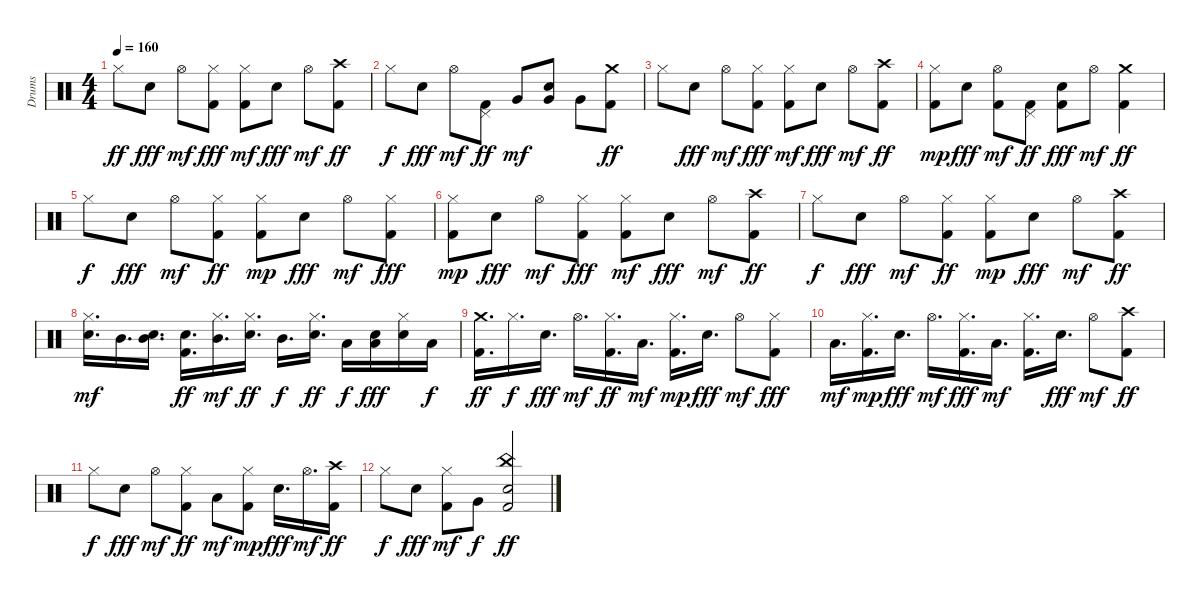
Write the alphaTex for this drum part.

\track ("Drums" "Drums") {instrument percussion}
\staff {score}
\articulation defaults
\ts (4 4)
\tempo 160
\clef neutral
\ks c "Hi-Hat (closed)".8{dy ff} "Electric Snare (hit)".8{dy fff} "Hi-Hat (open)".8{dy mf}
("Kick (hit) 2" "Hi-Hat (closed)").8{dy fff} ("Kick (hit) 2" "Hi-Hat (closed)").8{dy mf} "Electric Snare (hit)".8{dy fff} "Hi-Hat (open)".8{dy mf} ("Kick (hit) 2" "Crash high (hit)").8{dy ff} |
"Hi-Hat (closed)".8{dy f} "Electric Snare (hit)".8{dy fff} "Hi-Hat (open)".8{dy mf} ("Kick (hit) 2" "Pedal Hi-Hat (hit)").8{dy ff} "Very Low Tom (hit)".8{dy mf} ("Electric Snare (hit)" "Very Low Tom (hit)").8 "Very Low Tom (hit)".8 ("Kick (hit) 2" "Crash medium (hit)").8{dy ff} |
"Hi-Hat (closed)".8 "Electric Snare (hit)".8{dy fff} "Hi-Hat (open)".8{dy mf} ("Kick (hit) 2" "Hi-Hat (closed)").8{dy fff} ("Kick (hit) 2" "Hi-Hat (closed)").8{dy mf} "Electric Snare (hit)".8{dy fff} "Hi-Hat (open)".8{dy mf} ("Kick (hit) 2" "Crash high (hit)").8{dy ff} |
("Kick (hit) 2" "Hi-Hat (closed)").8{dy mp} "Electric Snare (hit)".8{dy fff} ("Kick (hit) 2" "Hi-Hat (open)").8{dy mf} ("Kick (hit) 2" "Pedal Hi-Hat (hit)").8{dy ff} ("Kick (hit) 2" "Electric Snare (hit)").8{dy fff} "Hi-Hat (open)".8{dy mf} ("Kick (hit) 2" "Crash medium (hit)").4{dy ff} |
"Hi-Hat (closed)".8{dy f} "Electric Snare (hit)".8{dy fff} "Hi-Hat (open)".8{dy mf} ("Kick (hit) 2" "Hi-Hat (closed)").8{dy ff} ("Kick (hit) 2" "Hi-Hat (closed)").8{dy mp} "Electric Snare (hit)".8{dy fff} "Hi-Hat (open)".8{dy mf} ("Kick (hit) 2" "Hi-Hat (closed)").8{dy fff} |
("Kick (hit) 2" "Hi-Hat (closed)").8{dy mp} "Electric Snare (hit)".8{dy fff} "Hi-Hat (open)".8{dy mf} ("Kick (hit) 2" "Hi-Hat (closed)").8{dy fff} ("Kick (hit) 2" "Hi-Hat (closed)").8{dy mf} "Electric Snare (hit)".8{dy fff} "Hi-Hat (open)".8{dy mf} ("Kick (hit) 2" "Crash high (hit)").8{dy ff} |
"Hi-Hat (closed)".8{dy f} "Electric Snare (hit)".8{dy fff} "Hi-Hat (open)".8{dy mf} ("Kick (hit) 2" "Hi-Hat (closed)").8{dy ff} ("Kick (hit) 2" "Hi-Hat (closed)").8{dy mp} "Electric Snare (hit)".8{dy fff} "Hi-Hat (open)".8{dy mf} ("Kick (hit) 2" "Crash high (hit)").8{dy ff} |
("Electric Snare (hit)" "Hi-Hat (closed)").16{d dy mf} "Mid Tom (hit)".16{d} ("Electric Snare (hit)" "Mid Tom (hit)").16{d} ("Kick (hit) 2" "Electric Snare (hit)").16{d dy ff} ("Hi-Hat (closed)" "Mid Tom (hit)").16{d dy mf} ("Electric Snare (hit)" "Hi-Hat (closed)").16{d dy ff} "Mid Tom (hit)".16{d dy f} ("Electric Snare (hit)" "Hi-Hat (closed)").16{d dy ff} "Low Tom (hit)".16{dy f} ("Electric Snare (hit)" "Low Tom (hit)").16{dy fff} ("Electric Snare (hit)" "Hi-Hat (closed)").16 "Low Tom (hit)".16{dy f} |
("Crash medium (hit)" "Kick (hit) 2").16{d dy ff} "Hi-Hat (closed)".16{d dy f} "Electric Snare (hit)".16{d dy fff} "Hi-Hat (open)".16{d dy mf} ("Kick (hit) 2" "Hi-Hat (closed)").16{d dy ff} "Low Tom (hit)".16{d dy mf} ("Kick (hit) 2" "Hi-Hat (closed)").16{d dy mp} "Electric Snare (hit)".16{d dy fff} "Hi-Hat (open)".8{dy mf} ("Kick (hit) 2" "Hi-Hat (closed)").8{dy fff} |
"Low Tom (hit)".16{d dy mf} ("Kick (hit) 2" "Hi-Hat (closed)").16{d dy mp} "Electric Snare (hit)".16{d dy fff} "Hi-Hat (open)".16{d dy mf} ("Kick (hit) 2" "Hi-Hat (closed)").16{d dy fff} "Low Tom (hit)".16{d dy mf} ("Kick (hit) 2" "Hi-Hat (closed)").16{d} "Electric Snare (hit)".16{d dy fff} "Hi-Hat (open)".8{dy mf} ("Kick (hit) 2" "Crash high (hit)").8{dy ff} |
"Hi-Hat (closed)".8{dy f volume 0} "Electric Snare (hit)".8{dy fff} "Hi-Hat (open)".8{dy mf} ("Kick (hit) 2" "Hi-Hat (closed)").8{dy ff} "Low Tom (hit)".8{dy mf} ("Kick (hit) 2" "Hi-Hat (closed)").8{dy mp} "Electric Snare (hit)".16{d dy fff} "Hi-Hat (open)".16{d dy mf} ("Kick (hit) 2" "Crash high (hit)").16{dy ff} |
"Hi-Hat (closed)".8{dy f} "Electric Snare (hit)".8{dy fff} ("Kick (hit) 2" "Hi-Hat (closed)").8{dy mf} "Very Low Tom (hit)".8{dy f} ("Kick (hit) 2" "China (hit)" "Snare (hit) 2").2{dy ff}
